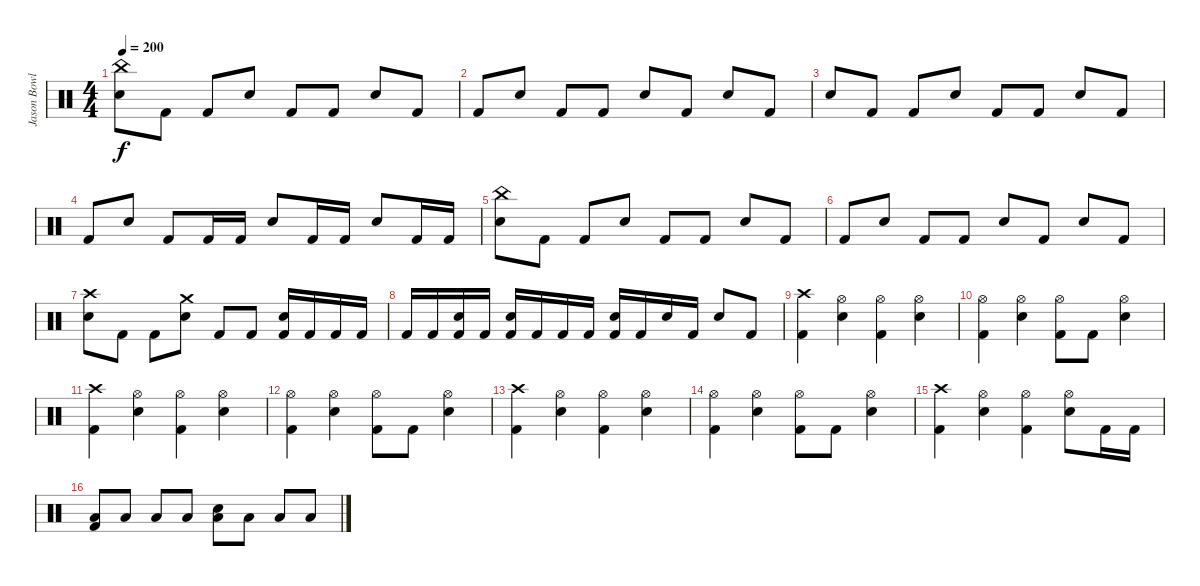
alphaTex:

\track ("Jason Bowld" "Jason Bowl") {instrument percussion}
\staff {score}
\articulation defaults
\ts (4 4)
\tempo 200
\clef neutral
\ks c
("China (hit)" "Snare (hit) 2").8{dy f} "Kick (hit) 2".8 "Kick (hit) 2".8 "Snare (hit) 2".8 "Kick (hit) 2".8 "Kick (hit) 2".8 "Snare (hit) 2".8 "Kick (hit) 2".8 |
"Kick (hit) 2".8 "Snare (hit) 2".8 "Kick (hit) 2".8 "Kick (hit) 2".8 "Snare (hit) 2".8 "Kick (hit) 2".8 "Snare (hit) 2".8 "Kick (hit) 2".8 |
"Snare (hit) 2".8 "Kick (hit) 2".8 "Kick (hit) 2".8 "Snare (hit) 2".8 "Kick (hit) 2".8 "Kick (hit) 2".8 "Snare (hit) 2".8 "Kick (hit) 2".8 |
"Kick (hit) 2".8 "Snare (hit) 2".8 "Kick (hit) 2".8 "Kick (hit) 2".16 "Kick (hit) 2".16 "Snare (hit) 2".8 "Kick (hit) 2".16 "Kick (hit) 2".16 "Snare (hit) 2".8 "Kick (hit) 2".16 "Kick (hit) 2".16 |
("China (hit)" "Snare (hit) 2").8 "Kick (hit) 2".8 "Kick (hit) 2".8 "Snare (hit) 2".8 "Kick (hit) 2".8 "Kick (hit) 2".8 "Snare (hit) 2".8 "Kick (hit) 2".8 |
"Kick (hit) 2".8 "Snare (hit) 2".8 "Kick (hit) 2".8 "Kick (hit) 2".8 "Snare (hit) 2".8 "Kick (hit) 2".8 "Snare (hit) 2".8 "Kick (hit) 2".8 |
("Crash high (hit)" "Snare (hit) 2").8 "Kick (hit) 2".8 "Kick (hit) 2".8 ("Crash medium (hit)" "Snare (hit) 2").8 "Kick (hit) 2".8 "Kick (hit) 2".8 ("Snare (hit) 2" "Kick (hit) 2").16 "Kick (hit) 2".16 "Kick (hit) 2".16 "Kick (hit) 2".16 |
"Kick (hit) 2".16 "Kick (hit) 2".16 ("Snare (hit) 2" "Kick (hit) 2").16 "Kick (hit) 2".16 ("Snare (hit) 2" "Kick (hit) 2").16 "Kick (hit) 2".16 "Kick (hit) 2".16 "Kick (hit) 2".16 ("Snare (hit) 2" "Kick (hit) 2").16 "Kick (hit) 2".16 "Snare (hit) 2".16 "Kick (hit) 2".16 "Snare (hit) 2".8 "Kick (hit) 2".8 |
("Crash high (hit)" "Kick (hit) 2").4 ("Hi-Hat (open)" "Snare (hit) 2").4 ("Hi-Hat (open)" "Kick (hit) 2").4 ("Hi-Hat (open)" "Snare (hit) 2").4 |
("Hi-Hat (open)" "Kick (hit) 2").4 ("Hi-Hat (open)" "Snare (hit) 2").4 ("Hi-Hat (open)" "Kick (hit) 2").8 "Kick (hit) 2".8 ("Hi-Hat (open)" "Snare (hit) 2").4 |
("Crash high (hit)" "Kick (hit) 2").4 ("Hi-Hat (open)" "Snare (hit) 2").4 ("Hi-Hat (open)" "Kick (hit) 2").4 ("Hi-Hat (open)" "Snare (hit) 2").4 |
("Hi-Hat (open)" "Kick (hit) 2").4 ("Hi-Hat (open)" "Snare (hit) 2").4 ("Hi-Hat (open)" "Kick (hit) 2").8 "Kick (hit) 2".8 ("Hi-Hat (open)" "Snare (hit) 2").4 |
("Crash high (hit)" "Kick (hit) 2").4 ("Hi-Hat (open)" "Snare (hit) 2").4 ("Hi-Hat (open)" "Kick (hit) 2").4 ("Hi-Hat (open)" "Snare (hit) 2").4 |
("Hi-Hat (open)" "Kick (hit) 2").4 ("Hi-Hat (open)" "Snare (hit) 2").4 ("Hi-Hat (open)" "Kick (hit) 2").8 "Kick (hit) 2".8 ("Hi-Hat (open)" "Snare (hit) 2").4 |
("Crash high (hit)" "Kick (hit) 2").4 ("Hi-Hat (open)" "Snare (hit) 2").4 ("Hi-Hat (open)" "Kick (hit) 2").4 ("Hi-Hat (open)" "Snare (hit) 2").8 "Kick (hit) 2".16 "Kick (hit) 2".16 |
("Low Tom (hit)" "Kick (hit) 2").8 "Low Tom (hit)".8 "Low Tom (hit)".8 "Low Tom (hit)".8 ("Low Tom (hit)" "Snare (hit) 2").8 "Low Tom (hit)".8 "Low Tom (hit)".8 "Low Tom (hit)".8
